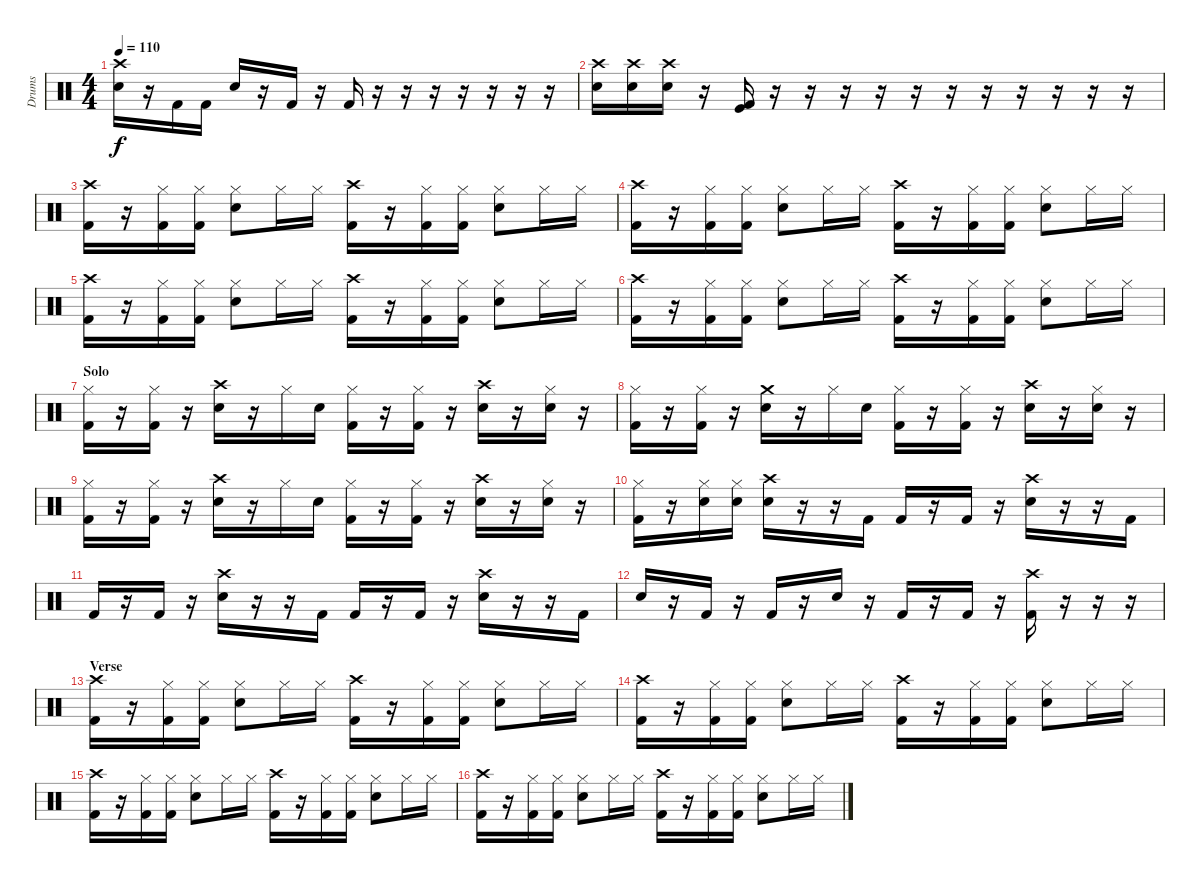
\track ("Drums" "Drums") {instrument percussion}
\staff {score}
\articulation defaults
\ts (4 4)
\tempo 110
\clef neutral
\ks c
("Crash high (hit)" "Snare (hit) 2").16{dy f} r.16 "Kick (hit) 2".16 "Kick (hit) 2".16 "Snare (hit) 2".16 r.16 "Kick (hit) 2".16 r.16 "Kick (hit) 2".16 r.16 r.16 r.16 r.16 r.16 r.16 r.16 |
("Crash high (hit)" "Snare (hit) 2").16 ("Crash high (hit)" "Snare (hit) 2").16 ("Crash high (hit)" "Snare (hit) 2").16 r.16 ("Kick (hit)" "Kick (hit) 2").16 r.16 r.16 r.16 r.16 r.16 r.16 r.16 r.16 r.16 r.16 r.16 |
("Crash high (hit)" "Kick (hit) 2").16 r.16 ("Hi-Hat (closed)" "Kick (hit) 2").16 ("Hi-Hat (closed)" "Kick (hit) 2").16 ("Hi-Hat (closed)" "Snare (hit) 2").8 "Hi-Hat (closed)".16 "Hi-Hat (closed)".16 ("Crash high (hit)" "Kick (hit) 2").16 r.16 ("Hi-Hat (closed)" "Kick (hit) 2").16 ("Hi-Hat (closed)" "Kick (hit) 2").16 ("Hi-Hat (closed)" "Snare (hit) 2").8 "Hi-Hat (closed)".16 "Hi-Hat (closed)".16 |
("Crash high (hit)" "Kick (hit) 2").16 r.16 ("Hi-Hat (closed)" "Kick (hit) 2").16 ("Hi-Hat (closed)" "Kick (hit) 2").16 ("Hi-Hat (closed)" "Snare (hit) 2").8 "Hi-Hat (closed)".16 "Hi-Hat (closed)".16 ("Crash high (hit)" "Kick (hit) 2").16 r.16 ("Hi-Hat (closed)" "Kick (hit) 2").16 ("Hi-Hat (closed)" "Kick (hit) 2").16 ("Hi-Hat (closed)" "Snare (hit) 2").8 "Hi-Hat (closed)".16 "Hi-Hat (closed)".16 |
("Crash high (hit)" "Kick (hit) 2").16 r.16 ("Hi-Hat (closed)" "Kick (hit) 2").16 ("Hi-Hat (closed)" "Kick (hit) 2").16 ("Hi-Hat (closed)" "Snare (hit) 2").8 "Hi-Hat (closed)".16 "Hi-Hat (closed)".16 ("Crash high (hit)" "Kick (hit) 2").16 r.16 ("Hi-Hat (closed)" "Kick (hit) 2").16 ("Hi-Hat (closed)" "Kick (hit) 2").16 ("Hi-Hat (closed)" "Snare (hit) 2").8 "Hi-Hat (closed)".16 "Hi-Hat (closed)".16 |
("Crash high (hit)" "Kick (hit) 2").16 r.16 ("Hi-Hat (closed)" "Kick (hit) 2").16 ("Hi-Hat (closed)" "Kick (hit) 2").16 ("Hi-Hat (closed)" "Snare (hit) 2").8 "Hi-Hat (closed)".16 "Hi-Hat (closed)".16 ("Crash high (hit)" "Kick (hit) 2").16 r.16 ("Hi-Hat (closed)" "Kick (hit) 2").16 ("Hi-Hat (closed)" "Kick (hit) 2").16 ("Hi-Hat (closed)" "Snare (hit) 2").8 "Hi-Hat (closed)".16 "Hi-Hat (closed)".16 |
\section ("" "Solo")
("Hi-Hat (closed)" "Kick (hit) 2").16 r.16 ("Hi-Hat (closed)" "Kick (hit) 2").16 r.16 ("Crash high (hit)" "Snare (hit) 2").16 r.16 "Hi-Hat (closed)".16 "Snare (hit) 2".16 ("Hi-Hat (closed)" "Kick (hit) 2").16 r.16 ("Hi-Hat (closed)" "Kick (hit) 2").16 r.16 ("Crash high (hit)" "Snare (hit) 2").16 r.16 ("Hi-Hat (closed)" "Snare (hit) 2").16 r.16 |
("Hi-Hat (closed)" "Kick (hit) 2").16 r.16 ("Hi-Hat (closed)" "Kick (hit) 2").16 r.16 ("Crash medium (hit)" "Snare (hit) 2").16 r.16 "Hi-Hat (closed)".16 "Snare (hit) 2".16 ("Hi-Hat (closed)" "Kick (hit) 2").16 r.16 ("Hi-Hat (closed)" "Kick (hit) 2").16 r.16 ("Crash high (hit)" "Snare (hit) 2").16 r.16 ("Hi-Hat (closed)" "Snare (hit) 2").16 r.16 |
("Hi-Hat (closed)" "Kick (hit) 2").16 r.16 ("Hi-Hat (closed)" "Kick (hit) 2").16 r.16 ("Crash high (hit)" "Snare (hit) 2").16 r.16 "Hi-Hat (closed)".16 "Snare (hit) 2".16 ("Hi-Hat (closed)" "Kick (hit) 2").16 r.16 ("Hi-Hat (closed)" "Kick (hit) 2").16 r.16 ("Crash high (hit)" "Snare (hit) 2").16 r.16 ("Hi-Hat (closed)" "Snare (hit) 2").16 r.16 |
("Hi-Hat (closed)" "Kick (hit) 2").16 r.16 ("Hi-Hat (closed)" "Snare (hit) 2").16 ("Hi-Hat (closed)" "Snare (hit) 2").16 ("Crash high (hit)" "Snare (hit) 2").16 r.16 r.16 "Kick (hit) 2".16 "Kick (hit) 2".16 r.16 "Kick (hit) 2".16 r.16 ("Crash high (hit)" "Snare (hit) 2").16 r.16 r.16 "Kick (hit) 2".16 |
"Kick (hit) 2".16 r.16 "Kick (hit) 2".16 r.16 ("Crash high (hit)" "Snare (hit) 2").16 r.16 r.16 "Kick (hit) 2".16 "Kick (hit) 2".16 r.16 "Kick (hit) 2".16 r.16 ("Crash high (hit)" "Snare (hit) 2").16 r.16 r.16 "Kick (hit) 2".16 |
"Snare (hit) 2".16 r.16 "Kick (hit) 2".16 r.16 "Kick (hit) 2".16 r.16 "Snare (hit) 2".16 r.16 "Kick (hit) 2".16 r.16 "Kick (hit) 2".16 r.16 ("Crash high (hit)" "Kick (hit) 2").16 r.16 r.16 r.16 |
\section ("" "Verse")
("Crash high (hit)" "Kick (hit) 2").16 r.16 ("Hi-Hat (closed)" "Kick (hit) 2").16 ("Hi-Hat (closed)" "Kick (hit) 2").16 ("Hi-Hat (closed)" "Snare (hit) 2").8 "Hi-Hat (closed)".16 "Hi-Hat (closed)".16 ("Crash high (hit)" "Kick (hit) 2").16 r.16 ("Hi-Hat (closed)" "Kick (hit) 2").16 ("Hi-Hat (closed)" "Kick (hit) 2").16 ("Hi-Hat (closed)" "Snare (hit) 2").8 "Hi-Hat (closed)".16 "Hi-Hat (closed)".16 |
("Crash high (hit)" "Kick (hit) 2").16 r.16 ("Hi-Hat (closed)" "Kick (hit) 2").16 ("Hi-Hat (closed)" "Kick (hit) 2").16 ("Hi-Hat (closed)" "Snare (hit) 2").8 "Hi-Hat (closed)".16 "Hi-Hat (closed)".16 ("Crash high (hit)" "Kick (hit) 2").16 r.16 ("Hi-Hat (closed)" "Kick (hit) 2").16 ("Hi-Hat (closed)" "Kick (hit) 2").16 ("Hi-Hat (closed)" "Snare (hit) 2").8 "Hi-Hat (closed)".16 "Hi-Hat (closed)".16 |
("Crash high (hit)" "Kick (hit) 2").16 r.16 ("Hi-Hat (closed)" "Kick (hit) 2").16 ("Hi-Hat (closed)" "Kick (hit) 2").16 ("Hi-Hat (closed)" "Snare (hit) 2").8 "Hi-Hat (closed)".16 "Hi-Hat (closed)".16 ("Crash high (hit)" "Kick (hit) 2").16 r.16 ("Hi-Hat (closed)" "Kick (hit) 2").16 ("Hi-Hat (closed)" "Kick (hit) 2").16 ("Hi-Hat (closed)" "Snare (hit) 2").8 "Hi-Hat (closed)".16 "Hi-Hat (closed)".16 |
("Crash high (hit)" "Kick (hit) 2").16 r.16 ("Hi-Hat (closed)" "Kick (hit) 2").16 ("Hi-Hat (closed)" "Kick (hit) 2").16 ("Hi-Hat (closed)" "Snare (hit) 2").8 "Hi-Hat (closed)".16 "Hi-Hat (closed)".16 ("Crash high (hit)" "Kick (hit) 2").16 r.16 ("Hi-Hat (closed)" "Kick (hit) 2").16 ("Hi-Hat (closed)" "Kick (hit) 2").16 ("Hi-Hat (closed)" "Snare (hit) 2").8 "Hi-Hat (closed)".16 "Hi-Hat (closed)".16
